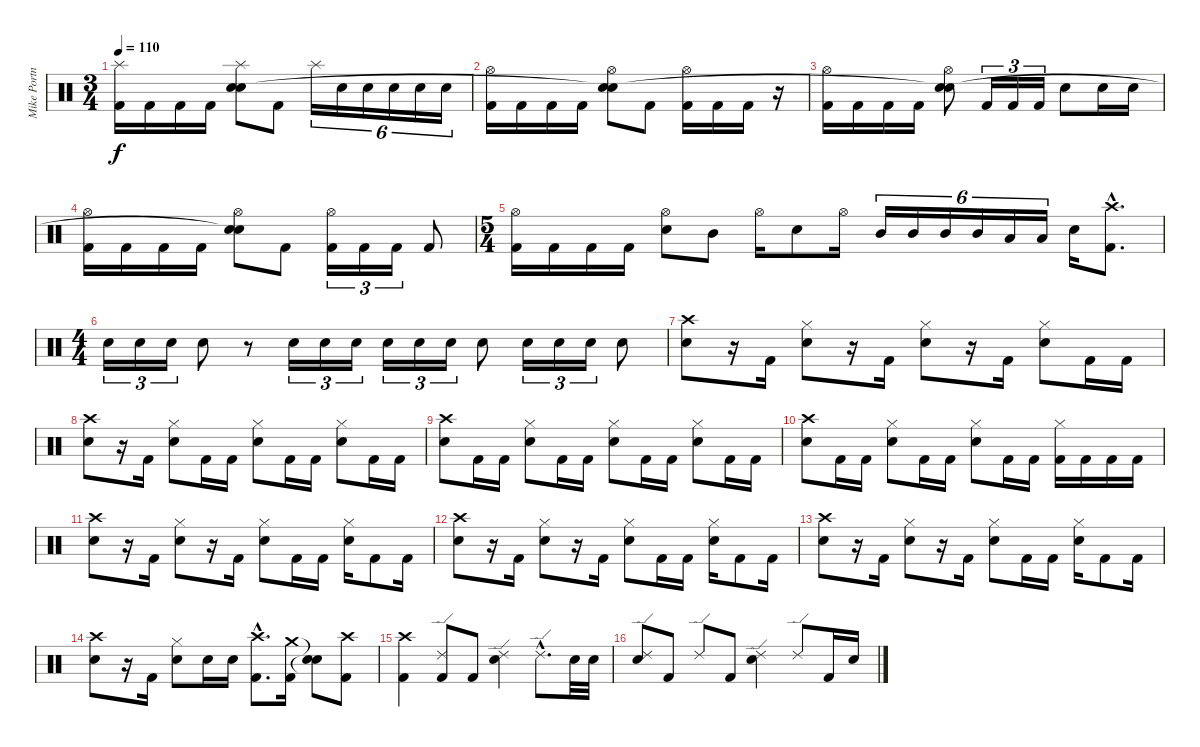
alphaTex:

\track ("Mike Portnoy - Drums" "Mike Portn") {instrument percussion}
\staff {score}
\articulation defaults
\ts (3 4)
\tempo 110
\clef neutral
\ks c
("Splash (hit)" "Kick (hit) 2").16{dy f} "Kick (hit) 2".16 "Kick (hit) 2".16 "Kick (hit) 2".16 ("Splash (hit)" "Electric Snare (hit)" "Snare (hit)"{t}).8 "Kick (hit) 2".8 "Splash (hit)".16{tu (6 4)} "Electric Snare (hit)".16{tu (6 4)} "Electric Snare (hit)".16{tu (6 4)} "Electric Snare (hit)".16{tu (6 4)} "Electric Snare (hit)".16{tu (6 4)} "Electric Snare (hit)".16{tu (6 4)} |
("Hi-Hat (open)" "Kick (hit) 2").16 "Kick (hit) 2".16 "Kick (hit) 2".16 "Kick (hit) 2".16 ("Hi-Hat (open)" "Electric Snare (hit)" "Snare (hit)"{t}).8 "Kick (hit) 2".8 ("Hi-Hat (open)" "Kick (hit) 2").16 "Kick (hit) 2".16 "Kick (hit) 2".16 r.16 |
("Hi-Hat (open)" "Kick (hit) 2").16 "Kick (hit) 2".16 "Kick (hit) 2".16 "Kick (hit) 2".16 ("Hi-Hat (open)" "Electric Snare (hit)" "Snare (hit)"{t}).8 "Kick (hit) 2".16{tu (3 2)} "Kick (hit) 2".16{tu (3 2)} "Kick (hit) 2".16{tu (3 2)} "Electric Snare (hit)".8 "Electric Snare (hit)".16 "Electric Snare (hit)".16 |
("Hi-Hat (open)" "Kick (hit) 2").16 "Kick (hit) 2".16 "Kick (hit) 2".16 "Kick (hit) 2".16 ("Hi-Hat (open)" "Electric Snare (hit)" "Snare (hit)"{t}).8 "Kick (hit) 2".8 ("Hi-Hat (open)" "Kick (hit) 2").16{tu (3 2)} "Kick (hit) 2".16{tu (3 2)} "Kick (hit) 2".16{tu (3 2)} "Kick (hit) 2".8 |
\ts (5 4)
("Hi-Hat (open)" "Kick (hit) 2").16 "Kick (hit) 2".16 "Kick (hit) 2".16 "Kick (hit) 2".16 ("Hi-Hat (open)" "Electric Snare (hit)").8 "Mid Tom (hit)".8 "Hi-Hat (open)".16 "Electric Snare (hit)".8 "Hi-Hat (open)".16 "Mid Tom (hit)".16{tu (6 4)} "Mid Tom (hit)".16{tu (6 4)} "Mid Tom (hit)".16{tu (6 4)} "Mid Tom (hit)".16{tu (6 4)} "Low Tom (hit)".16{tu (6 4)} "Low Tom (hit)".16{tu (6 4)} "Electric Snare (hit)".16 ("Crash high (hit)"{hac} "Kick (hit) 2"{hac}).8{d} |
\ts (4 4)
"Electric Snare (hit)".16{tu (3 2)} "Electric Snare (hit)".16{tu (3 2)} "Electric Snare (hit)".16{tu (3 2)} "Electric Snare (hit)".8 r.8 "Electric Snare (hit)".16{tu (3 2)} "Electric Snare (hit)".16{tu (3 2)} "Electric Snare (hit)".16{tu (3 2)} "Electric Snare (hit)".16{tu (3 2)} "Electric Snare (hit)".16{tu (3 2)} "Electric Snare (hit)".16{tu (3 2)} "Electric Snare (hit)".8 "Electric Snare (hit)".16{tu (3 2)} "Electric Snare (hit)".16{tu (3 2)} "Electric Snare (hit)".16{tu (3 2)} "Electric Snare (hit)".8 |
("Crash high (hit)" "Electric Snare (hit)").8 r.16 "Kick (hit) 2".16 ("Hi-Hat (closed)" "Electric Snare (hit)").8 r.16 "Kick (hit) 2".16 ("Hi-Hat (closed)" "Electric Snare (hit)").8 r.16 "Kick (hit) 2".16 ("Hi-Hat (closed)" "Electric Snare (hit)").8 "Kick (hit) 2".16 "Kick (hit) 2".16 |
("Crash high (hit)" "Electric Snare (hit)").8 r.16 "Kick (hit) 2".16 ("Hi-Hat (closed)" "Electric Snare (hit)").8 "Kick (hit) 2".16 "Kick (hit) 2".16 ("Hi-Hat (closed)" "Electric Snare (hit)").8 "Kick (hit) 2".16 "Kick (hit) 2".16 ("Hi-Hat (closed)" "Electric Snare (hit)").8 "Kick (hit) 2".16 "Kick (hit) 2".16 |
("Crash high (hit)" "Electric Snare (hit)").8 "Kick (hit) 2".16 "Kick (hit) 2".16 ("Hi-Hat (closed)" "Electric Snare (hit)").8 "Kick (hit) 2".16 "Kick (hit) 2".16 ("Hi-Hat (closed)" "Electric Snare (hit)").8 "Kick (hit) 2".16 "Kick (hit) 2".16 ("Hi-Hat (closed)" "Electric Snare (hit)").8 "Kick (hit) 2".16 "Kick (hit) 2".16 |
("Crash high (hit)" "Electric Snare (hit)").8 "Kick (hit) 2".16 "Kick (hit) 2".16 ("Hi-Hat (closed)" "Electric Snare (hit)").8 "Kick (hit) 2".16 "Kick (hit) 2".16 ("Hi-Hat (closed)" "Electric Snare (hit)").8 "Kick (hit) 2".16 "Kick (hit) 2".16 ("Hi-Hat (closed)" "Kick (hit) 2").16 "Kick (hit) 2".16 "Kick (hit) 2".16 "Kick (hit) 2".16 |
("Crash high (hit)" "Electric Snare (hit)").8 r.16 "Kick (hit) 2".16 ("Hi-Hat (closed)" "Electric Snare (hit)").8 r.16 "Kick (hit) 2".16 ("Hi-Hat (closed)" "Electric Snare (hit)").8 "Kick (hit) 2".16 "Kick (hit) 2".16 ("Hi-Hat (closed)" "Electric Snare (hit)").16 "Kick (hit) 2".8 "Kick (hit) 2".16 |
("Crash high (hit)" "Electric Snare (hit)").8 r.16 "Kick (hit) 2".16 ("Hi-Hat (closed)" "Electric Snare (hit)").8 r.16 "Kick (hit) 2".16 ("Hi-Hat (closed)" "Electric Snare (hit)").8 "Kick (hit) 2".16 "Kick (hit) 2".16 ("Hi-Hat (closed)" "Electric Snare (hit)").16 "Kick (hit) 2".8 "Kick (hit) 2".16 |
("Crash high (hit)" "Electric Snare (hit)").8 r.16 "Kick (hit) 2".16 ("Hi-Hat (closed)" "Electric Snare (hit)").8 r.16 "Kick (hit) 2".16 ("Hi-Hat (closed)" "Electric Snare (hit)").8 "Kick (hit) 2".16 "Kick (hit) 2".16 ("Hi-Hat (closed)" "Electric Snare (hit)").16 "Kick (hit) 2".8 "Kick (hit) 2".16 |
("Crash high (hit)" "Electric Snare (hit)").8 r.16 "Kick (hit) 2".16 ("Hi-Hat (closed)" "Electric Snare (hit)").8 "Electric Snare (hit)".16 "Electric Snare (hit)".16 ("Crash high (hit)"{hac} "Kick (hit) 2"{hac}).8{d} ("Crash medium (hit)" "Kick (hit) 2").16 ("Snare (hit)"{t} "Snare (hit)"{t}).8 ("Crash high (hit)" "Kick (hit) 2").8 |
("Crash high (hit)" "Kick (hit) 2").4 ("Ride (edge) 2" "Kick (hit) 2").8 "Kick (hit) 2".8 ("Ride (edge) 2" "Electric Snare (hit)").4 "Ride (edge) 2"{hac}.8{d} "Electric Snare (hit)".32 "Electric Snare (hit)".32 |
("Ride (edge) 2" "Electric Snare (hit)").8 "Kick (hit) 2".8 "Ride (edge) 2".8 "Kick (hit) 2".8 ("Ride (edge) 2" "Electric Snare (hit)").4 "Ride (edge) 2".8 "Kick (hit) 2".16 "Electric Snare (hit)".16
